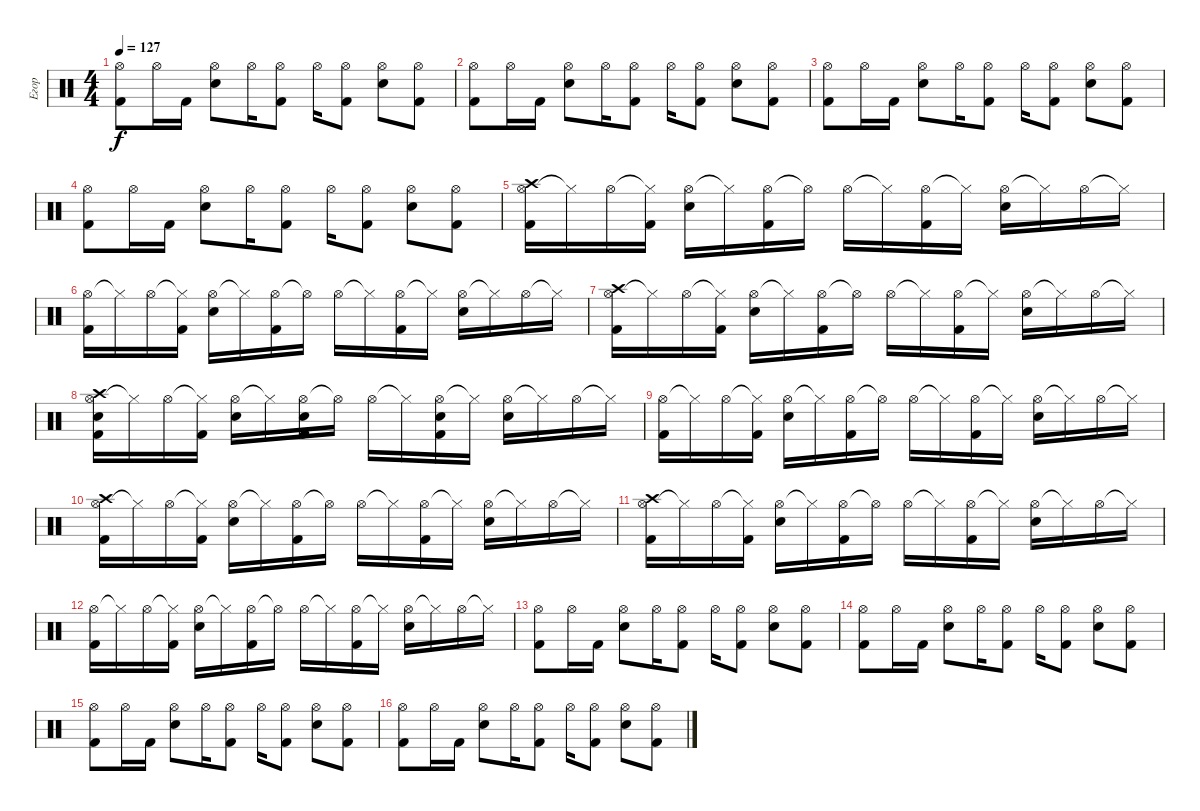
\track ("Егор" "Егор") {instrument percussion}
\staff {score}
\articulation defaults
\ts (4 4)
\tempo 127
\clef neutral
\ks c
("Hi-Hat (open)" "Kick (hit) 2").8{dy f} "Hi-Hat (open)".16 "Kick (hit) 2".16 ("Hi-Hat (open)" "Electric Snare (hit)").8 "Hi-Hat (open)".16 ("Hi-Hat (open)" "Kick (hit) 2").8 "Hi-Hat (open)".16 ("Hi-Hat (open)" "Kick (hit) 2").8 ("Hi-Hat (open)" "Electric Snare (hit)").8 ("Hi-Hat (open)" "Kick (hit) 2").8 |
("Hi-Hat (open)" "Kick (hit) 2").8 "Hi-Hat (open)".16 "Kick (hit) 2".16 ("Hi-Hat (open)" "Electric Snare (hit)").8 "Hi-Hat (open)".16 ("Hi-Hat (open)" "Kick (hit) 2").8 "Hi-Hat (open)".16 ("Hi-Hat (open)" "Kick (hit) 2").8 ("Hi-Hat (open)" "Electric Snare (hit)").8 ("Hi-Hat (open)" "Kick (hit) 2").8 |
("Hi-Hat (open)" "Kick (hit) 2").8 "Hi-Hat (open)".16 "Kick (hit) 2".16 ("Hi-Hat (open)" "Electric Snare (hit)").8 "Hi-Hat (open)".16 ("Hi-Hat (open)" "Kick (hit) 2").8 "Hi-Hat (open)".16 ("Hi-Hat (open)" "Kick (hit) 2").8 ("Hi-Hat (open)" "Electric Snare (hit)").8 ("Hi-Hat (open)" "Kick (hit) 2").8 |
("Hi-Hat (open)" "Kick (hit) 2").8 "Hi-Hat (open)".16 "Kick (hit) 2".16 ("Hi-Hat (open)" "Electric Snare (hit)").8 "Hi-Hat (open)".16 ("Hi-Hat (open)" "Kick (hit) 2").8 "Hi-Hat (open)".16 ("Hi-Hat (open)" "Kick (hit) 2").8 ("Hi-Hat (open)" "Electric Snare (hit)").8 ("Hi-Hat (open)" "Kick (hit) 2").8 |
("Hi-Hat (open)" "Crash high (hit)" "Kick (hit) 2").16 "Hi-Hat (closed)"{t}.16 "Hi-Hat (open)".16 ("Hi-Hat (closed)"{t} "Kick (hit) 2").16 ("Hi-Hat (open)" "Electric Snare (hit)").16 "Hi-Hat (closed)"{t}.16 ("Hi-Hat (open)" "Kick (hit) 2").16 "Hi-Hat (open)"{t}.16 "Hi-Hat (open)".16 "Hi-Hat (closed)"{t}.16 ("Hi-Hat (open)" "Kick (hit) 2").16 "Hi-Hat (closed)"{t}.16 ("Hi-Hat (open)" "Electric Snare (hit)").16 "Hi-Hat (closed)"{t}.16 "Hi-Hat (open)".16 "Hi-Hat (closed)"{t}.16 |
("Hi-Hat (open)" "Kick (hit) 2").16 "Hi-Hat (closed)"{t}.16 "Hi-Hat (open)".16 ("Hi-Hat (closed)"{t} "Kick (hit) 2").16 ("Hi-Hat (open)" "Electric Snare (hit)").16 "Hi-Hat (closed)"{t}.16 ("Hi-Hat (open)" "Kick (hit) 2").16 "Hi-Hat (open)"{t}.16 "Hi-Hat (open)".16 "Hi-Hat (closed)"{t}.16 ("Hi-Hat (open)" "Kick (hit) 2").16 "Hi-Hat (closed)"{t}.16 ("Hi-Hat (open)" "Electric Snare (hit)").16 "Hi-Hat (closed)"{t}.16 "Hi-Hat (open)".16 "Hi-Hat (closed)"{t}.16 |
("Hi-Hat (open)" "Crash high (hit)" "Kick (hit) 2").16 "Hi-Hat (closed)"{t}.16 "Hi-Hat (open)".16 ("Hi-Hat (closed)"{t} "Kick (hit) 2").16 ("Hi-Hat (open)" "Electric Snare (hit)").16 "Hi-Hat (closed)"{t}.16 ("Hi-Hat (open)" "Kick (hit) 2").16 "Hi-Hat (open)"{t}.16 "Hi-Hat (open)".16 "Hi-Hat (closed)"{t}.16 ("Hi-Hat (open)" "Kick (hit) 2").16 "Hi-Hat (closed)"{t}.16 ("Hi-Hat (open)" "Electric Snare (hit)").16 "Hi-Hat (closed)"{t}.16 "Hi-Hat (open)".16 "Hi-Hat (closed)"{t}.16 |
("Hi-Hat (open)" "Electric Snare (hit)" "Crash high (hit)" "Kick (hit) 2").16 "Hi-Hat (closed)"{t}.16 "Hi-Hat (open)".16 ("Hi-Hat (closed)"{t} "Kick (hit) 2").16 ("Hi-Hat (open)" "Electric Snare (hit)").16 "Hi-Hat (closed)"{t}.16 ("Hi-Hat (open)" "Electric Snare (hit)" "Kick (hit) 2").16 "Hi-Hat (open)"{t}.16 "Hi-Hat (open)".16 "Hi-Hat (closed)"{t}.16 ("Hi-Hat (open)" "Electric Snare (hit)" "Kick (hit) 2").16 "Hi-Hat (closed)"{t}.16 ("Hi-Hat (open)" "Electric Snare (hit)").16 "Hi-Hat (closed)"{t}.16 "Hi-Hat (open)".16 "Hi-Hat (closed)"{t}.16 |
("Hi-Hat (open)" "Kick (hit) 2").16 "Hi-Hat (closed)"{t}.16 "Hi-Hat (open)".16 ("Hi-Hat (closed)"{t} "Kick (hit) 2").16 ("Hi-Hat (open)" "Electric Snare (hit)").16 "Hi-Hat (closed)"{t}.16 ("Hi-Hat (open)" "Kick (hit) 2").16 "Hi-Hat (open)"{t}.16 "Hi-Hat (open)".16 "Hi-Hat (closed)"{t}.16 ("Hi-Hat (open)" "Kick (hit) 2").16 "Hi-Hat (closed)"{t}.16 ("Hi-Hat (open)" "Electric Snare (hit)").16 "Hi-Hat (closed)"{t}.16 "Hi-Hat (open)".16 "Hi-Hat (closed)"{t}.16 |
("Hi-Hat (open)" "Crash high (hit)" "Kick (hit) 2").16 "Hi-Hat (closed)"{t}.16 "Hi-Hat (open)".16 ("Hi-Hat (closed)"{t} "Kick (hit) 2").16 ("Hi-Hat (open)" "Electric Snare (hit)").16 "Hi-Hat (closed)"{t}.16 ("Hi-Hat (open)" "Kick (hit) 2").16 "Hi-Hat (open)"{t}.16 "Hi-Hat (open)".16 "Hi-Hat (closed)"{t}.16 ("Hi-Hat (open)" "Kick (hit) 2").16 "Hi-Hat (closed)"{t}.16 ("Hi-Hat (open)" "Electric Snare (hit)").16 "Hi-Hat (closed)"{t}.16 "Hi-Hat (open)".16 "Hi-Hat (closed)"{t}.16 |
("Hi-Hat (open)" "Crash high (hit)" "Kick (hit) 2").16 "Hi-Hat (closed)"{t}.16 "Hi-Hat (open)".16 ("Hi-Hat (closed)"{t} "Kick (hit) 2").16 ("Hi-Hat (open)" "Electric Snare (hit)").16 "Hi-Hat (closed)"{t}.16 ("Hi-Hat (open)" "Kick (hit) 2").16 "Hi-Hat (open)"{t}.16 "Hi-Hat (open)".16 "Hi-Hat (closed)"{t}.16 ("Hi-Hat (open)" "Kick (hit) 2").16 "Hi-Hat (closed)"{t}.16 ("Hi-Hat (open)" "Electric Snare (hit)").16 "Hi-Hat (closed)"{t}.16 "Hi-Hat (open)".16 "Hi-Hat (closed)"{t}.16 |
("Hi-Hat (open)" "Kick (hit) 2").16 "Hi-Hat (closed)"{t}.16 "Hi-Hat (open)".16 ("Hi-Hat (closed)"{t} "Kick (hit) 2").16 ("Hi-Hat (open)" "Electric Snare (hit)").16 "Hi-Hat (closed)"{t}.16 ("Hi-Hat (open)" "Kick (hit) 2").16 "Hi-Hat (open)"{t}.16 "Hi-Hat (open)".16 "Hi-Hat (closed)"{t}.16 ("Hi-Hat (open)" "Kick (hit) 2").16 "Hi-Hat (closed)"{t}.16 ("Hi-Hat (open)" "Electric Snare (hit)").16 "Hi-Hat (closed)"{t}.16 "Hi-Hat (open)".16 "Hi-Hat (closed)"{t}.16 |
("Hi-Hat (open)" "Kick (hit) 2").8 "Hi-Hat (open)".16 "Kick (hit) 2".16 ("Hi-Hat (open)" "Electric Snare (hit)").8 "Hi-Hat (open)".16 ("Hi-Hat (open)" "Kick (hit) 2").8 "Hi-Hat (open)".16 ("Hi-Hat (open)" "Kick (hit) 2").8 ("Hi-Hat (open)" "Electric Snare (hit)").8 ("Hi-Hat (open)" "Kick (hit) 2").8 |
("Hi-Hat (open)" "Kick (hit) 2").8 "Hi-Hat (open)".16 "Kick (hit) 2".16 ("Hi-Hat (open)" "Electric Snare (hit)").8 "Hi-Hat (open)".16 ("Hi-Hat (open)" "Kick (hit) 2").8 "Hi-Hat (open)".16 ("Hi-Hat (open)" "Kick (hit) 2").8 ("Hi-Hat (open)" "Electric Snare (hit)").8 ("Hi-Hat (open)" "Kick (hit) 2").8 |
("Hi-Hat (open)" "Kick (hit) 2").8 "Hi-Hat (open)".16 "Kick (hit) 2".16 ("Hi-Hat (open)" "Electric Snare (hit)").8 "Hi-Hat (open)".16 ("Hi-Hat (open)" "Kick (hit) 2").8 "Hi-Hat (open)".16 ("Hi-Hat (open)" "Kick (hit) 2").8 ("Hi-Hat (open)" "Electric Snare (hit)").8 ("Hi-Hat (open)" "Kick (hit) 2").8 |
("Hi-Hat (open)" "Kick (hit) 2").8 "Hi-Hat (open)".16 "Kick (hit) 2".16 ("Hi-Hat (open)" "Electric Snare (hit)").8 "Hi-Hat (open)".16 ("Hi-Hat (open)" "Kick (hit) 2").8 "Hi-Hat (open)".16 ("Hi-Hat (open)" "Kick (hit) 2").8 ("Hi-Hat (open)" "Electric Snare (hit)").8 ("Hi-Hat (open)" "Kick (hit) 2").8
